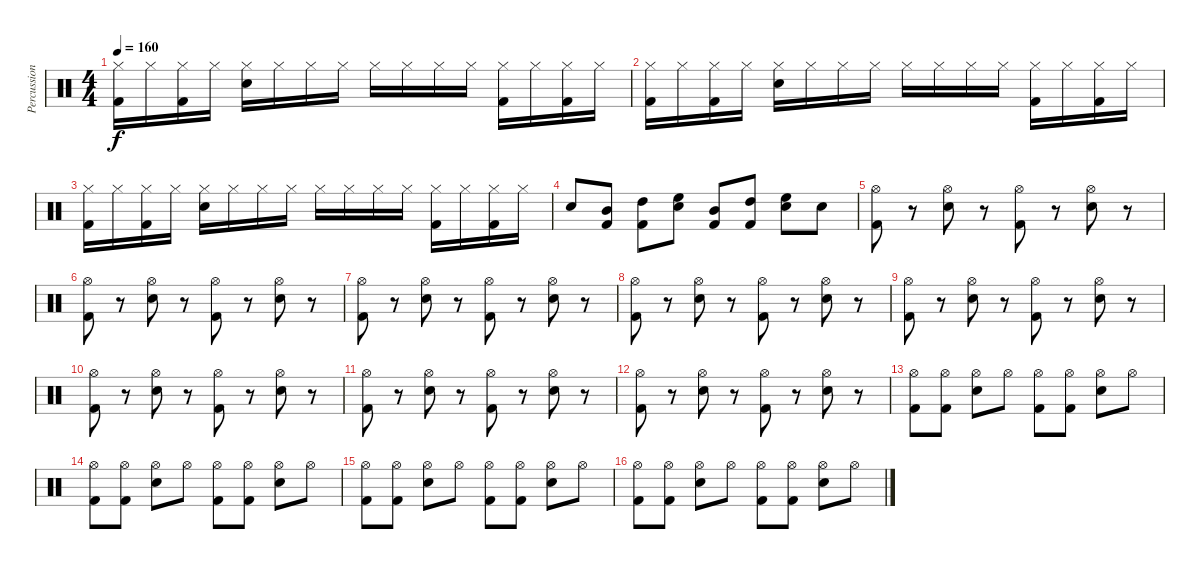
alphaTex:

\track ("Percussion" "Percussion") {instrument percussion}
\staff {score}
\articulation defaults
\ts (4 4)
\tempo 160
\clef neutral
\ks c
("Kick (hit) 2" "Hi-Hat (closed)").16{dy f} "Hi-Hat (closed)".16 ("Kick (hit) 2" "Hi-Hat (closed)").16 "Hi-Hat (closed)".16 ("Snare (hit) 2" "Hi-Hat (closed)").16 "Hi-Hat (closed)".16 "Hi-Hat (closed)".16 "Hi-Hat (closed)".16 "Hi-Hat (closed)".16 "Hi-Hat (closed)".16 "Hi-Hat (closed)".16 "Hi-Hat (closed)".16 ("Kick (hit) 2" "Hi-Hat (closed)").16 "Hi-Hat (closed)".16 ("Kick (hit) 2" "Hi-Hat (closed)").16 "Hi-Hat (closed)".16 |
("Kick (hit) 2" "Hi-Hat (closed)").16 "Hi-Hat (closed)".16 ("Kick (hit) 2" "Hi-Hat (closed)").16 "Hi-Hat (closed)".16 ("Snare (hit) 2" "Hi-Hat (closed)").16 "Hi-Hat (closed)".16 "Hi-Hat (closed)".16 "Hi-Hat (closed)".16 "Hi-Hat (closed)".16 "Hi-Hat (closed)".16 "Hi-Hat (closed)".16 "Hi-Hat (closed)".16 ("Kick (hit) 2" "Hi-Hat (closed)").16 "Hi-Hat (closed)".16 ("Kick (hit) 2" "Hi-Hat (closed)").16 "Hi-Hat (closed)".16 |
("Kick (hit) 2" "Hi-Hat (closed)").16 "Hi-Hat (closed)".16 ("Kick (hit) 2" "Hi-Hat (closed)").16 "Hi-Hat (closed)".16 ("Snare (hit) 2" "Hi-Hat (closed)").16 "Hi-Hat (closed)".16 "Hi-Hat (closed)".16 "Hi-Hat (closed)".16 "Hi-Hat (closed)".16 "Hi-Hat (closed)".16 "Hi-Hat (closed)".16 "Hi-Hat (closed)".16 ("Kick (hit) 2" "Hi-Hat (closed)").16 "Hi-Hat (closed)".16 ("Kick (hit) 2" "Hi-Hat (closed)").16 "Hi-Hat (closed)".16 |
"Snare (hit) 2".8 ("Mid Tom (hit)" "Kick (hit) 2").8 ("High Tom (hit)" "Kick (hit) 2").8 ("High Floor Tom (hit)" "Snare (hit) 2").8 ("Mid Tom (hit)" "Kick (hit) 2").8 ("High Tom (hit)" "Kick (hit) 2").8 ("High Floor Tom (hit)" "Snare (hit) 2").8 "Snare (hit) 2".8 |
("Hi-Hat (open)" "Kick (hit) 2").8 r.8 ("Hi-Hat (open)" "Snare (hit) 2").8 r.8 ("Hi-Hat (open)" "Kick (hit) 2").8 r.8 ("Hi-Hat (open)" "Snare (hit) 2").8 r.8 |
("Hi-Hat (open)" "Kick (hit) 2").8 r.8 ("Hi-Hat (open)" "Snare (hit) 2").8 r.8 ("Hi-Hat (open)" "Kick (hit) 2").8 r.8 ("Hi-Hat (open)" "Snare (hit) 2").8 r.8 |
("Hi-Hat (open)" "Kick (hit) 2").8 r.8 ("Hi-Hat (open)" "Snare (hit) 2").8 r.8 ("Hi-Hat (open)" "Kick (hit) 2").8 r.8 ("Hi-Hat (open)" "Snare (hit) 2").8 r.8 |
("Hi-Hat (open)" "Kick (hit) 2").8 r.8 ("Hi-Hat (open)" "Snare (hit) 2").8 r.8 ("Hi-Hat (open)" "Kick (hit) 2").8 r.8 ("Hi-Hat (open)" "Snare (hit) 2").8 r.8 |
("Hi-Hat (open)" "Kick (hit) 2").8 r.8 ("Hi-Hat (open)" "Snare (hit) 2").8 r.8 ("Hi-Hat (open)" "Kick (hit) 2").8 r.8 ("Hi-Hat (open)" "Snare (hit) 2").8 r.8 |
("Hi-Hat (open)" "Kick (hit) 2").8 r.8 ("Hi-Hat (open)" "Snare (hit) 2").8 r.8 ("Hi-Hat (open)" "Kick (hit) 2").8 r.8 ("Hi-Hat (open)" "Snare (hit) 2").8 r.8 |
("Hi-Hat (open)" "Kick (hit) 2").8 r.8 ("Hi-Hat (open)" "Snare (hit) 2").8 r.8 ("Hi-Hat (open)" "Kick (hit) 2").8 r.8 ("Hi-Hat (open)" "Snare (hit) 2").8 r.8 |
("Hi-Hat (open)" "Kick (hit) 2").8 r.8 ("Hi-Hat (open)" "Snare (hit) 2").8 r.8 ("Hi-Hat (open)" "Kick (hit) 2").8 r.8 ("Hi-Hat (open)" "Snare (hit) 2").8 r.8 |
("Kick (hit) 2" "Hi-Hat (open)").8 ("Kick (hit) 2" "Hi-Hat (open)").8 ("Snare (hit) 2" "Hi-Hat (open)").8 "Hi-Hat (open)".8 ("Kick (hit) 2" "Hi-Hat (open)").8 ("Kick (hit) 2" "Hi-Hat (open)").8 ("Snare (hit) 2" "Hi-Hat (open)").8 "Hi-Hat (open)".8 |
("Kick (hit) 2" "Hi-Hat (open)").8 ("Kick (hit) 2" "Hi-Hat (open)").8 ("Snare (hit) 2" "Hi-Hat (open)").8 "Hi-Hat (open)".8 ("Kick (hit) 2" "Hi-Hat (open)").8 ("Kick (hit) 2" "Hi-Hat (open)").8 ("Snare (hit) 2" "Hi-Hat (open)").8 "Hi-Hat (open)".8 |
("Kick (hit) 2" "Hi-Hat (open)").8 ("Kick (hit) 2" "Hi-Hat (open)").8 ("Snare (hit) 2" "Hi-Hat (open)").8 "Hi-Hat (open)".8 ("Kick (hit) 2" "Hi-Hat (open)").8 ("Kick (hit) 2" "Hi-Hat (open)").8 ("Snare (hit) 2" "Hi-Hat (open)").8 "Hi-Hat (open)".8 |
("Kick (hit) 2" "Hi-Hat (open)").8 ("Kick (hit) 2" "Hi-Hat (open)").8 ("Snare (hit) 2" "Hi-Hat (open)").8 "Hi-Hat (open)".8 ("Kick (hit) 2" "Hi-Hat (open)").8 ("Kick (hit) 2" "Hi-Hat (open)").8 ("Snare (hit) 2" "Hi-Hat (open)").8 "Hi-Hat (open)".8
